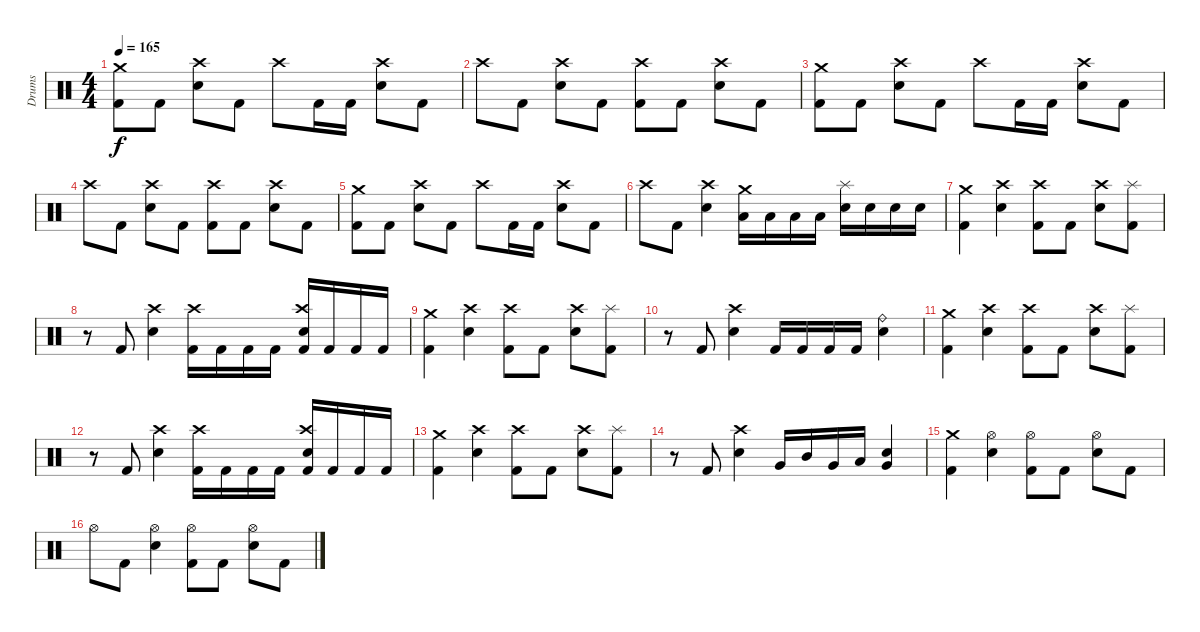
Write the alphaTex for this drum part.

\track ("Drums" "Drums") {instrument percussion}
\staff {score}
\articulation defaults
\ts (4 4)
\tempo 165
\clef neutral
\ks c
("Crash medium (hit)" "Kick (hit) 2").8{dy f} "Kick (hit) 2".8 ("Crash high (hit)" "Electric Snare (hit)").8 "Kick (hit) 2".8 "Crash high (hit)".8 "Kick (hit) 2".16 "Kick (hit) 2".16 ("Crash high (hit)" "Electric Snare (hit)").8 "Kick (hit) 2".8 |
"Crash high (hit)".8 "Kick (hit) 2".8 ("Crash high (hit)" "Electric Snare (hit)").8 "Kick (hit) 2".8 ("Crash high (hit)" "Kick (hit) 2").8 "Kick (hit) 2".8 ("Crash high (hit)" "Electric Snare (hit)").8 "Kick (hit) 2".8 |
("Crash medium (hit)" "Kick (hit) 2").8 "Kick (hit) 2".8 ("Crash high (hit)" "Electric Snare (hit)").8 "Kick (hit) 2".8 "Crash high (hit)".8 "Kick (hit) 2".16 "Kick (hit) 2".16 ("Crash high (hit)" "Electric Snare (hit)").8 "Kick (hit) 2".8 |
"Crash high (hit)".8 "Kick (hit) 2".8 ("Crash high (hit)" "Electric Snare (hit)").8 "Kick (hit) 2".8 ("Crash high (hit)" "Kick (hit) 2").8 "Kick (hit) 2".8 ("Crash high (hit)" "Electric Snare (hit)").8 "Kick (hit) 2".8 |
("Crash medium (hit)" "Kick (hit) 2").8 "Kick (hit) 2".8 ("Crash high (hit)" "Electric Snare (hit)").8 "Kick (hit) 2".8 "Crash high (hit)".8 "Kick (hit) 2".16 "Kick (hit) 2".16 ("Crash high (hit)" "Electric Snare (hit)").8 "Kick (hit) 2".8 |
"Crash high (hit)".8 "Kick (hit) 2".8 ("Crash high (hit)" "Electric Snare (hit)").4 ("Crash medium (hit)" "Low Tom (hit)").16 "Low Tom (hit)".16 "Low Tom (hit)".16 "Low Tom (hit)".16 ("Splash (hit)" "Electric Snare (hit)").16 "Electric Snare (hit)".16 "Electric Snare (hit)".16 "Electric Snare (hit)".16 |
("Crash medium (hit)" "Kick (hit) 2").4 ("Crash high (hit)" "Electric Snare (hit)").4 ("Crash high (hit)" "Kick (hit) 2").8 "Kick (hit) 2".8 ("Crash high (hit)" "Electric Snare (hit)").8 ("Splash (hit)" "Kick (hit) 2").8 |
r.8 "Kick (hit) 2".8 ("Crash high (hit)" "Electric Snare (hit)").4 ("Crash high (hit)" "Kick (hit) 2").16 "Kick (hit) 2".16 "Kick (hit) 2".16 "Kick (hit) 2".16 ("Crash high (hit)" "Electric Snare (hit)" "Kick (hit) 2").16 "Kick (hit) 2".16 "Kick (hit) 2".16 "Kick (hit) 2".16 |
("Crash medium (hit)" "Kick (hit) 2").4 ("Crash high (hit)" "Electric Snare (hit)").4 ("Crash high (hit)" "Kick (hit) 2").8 "Kick (hit) 2".8 ("Crash high (hit)" "Electric Snare (hit)").8 ("Splash (hit)" "Kick (hit) 2").8 |
r.8 "Kick (hit) 2".8 ("Crash high (hit)" "Electric Snare (hit)").4 "Kick (hit) 2".16 "Kick (hit) 2".16 "Kick (hit) 2".16 "Kick (hit) 2".16 ("Ride (bell)" "Electric Snare (hit)").4 |
("Crash medium (hit)" "Kick (hit) 2").4 ("Crash high (hit)" "Electric Snare (hit)").4 ("Crash high (hit)" "Kick (hit) 2").8 "Kick (hit) 2".8 ("Crash high (hit)" "Electric Snare (hit)").8 ("Splash (hit)" "Kick (hit) 2").8 |
r.8 "Kick (hit) 2".8 ("Crash high (hit)" "Electric Snare (hit)").4 ("Crash high (hit)" "Kick (hit) 2").16 "Kick (hit) 2".16 "Kick (hit) 2".16 "Kick (hit) 2".16 ("Crash high (hit)" "Electric Snare (hit)" "Kick (hit) 2").16 "Kick (hit) 2".16 "Kick (hit) 2".16 "Kick (hit) 2".16 |
("Crash medium (hit)" "Kick (hit) 2").4 ("Crash high (hit)" "Electric Snare (hit)").4 ("Crash high (hit)" "Kick (hit) 2").8 "Kick (hit) 2".8 ("Crash high (hit)" "Electric Snare (hit)").8 ("Splash (hit)" "Kick (hit) 2").8 |
r.8 "Kick (hit) 2".8 ("Crash high (hit)" "Electric Snare (hit)").4 "Very Low Tom (hit)".16 "Mid Tom (hit)".16 "Very Low Tom (hit)".16 "Low Floor Tom (hit)".16 ("Very Low Tom (hit)" "Electric Snare (hit)").4 |
("Crash medium (hit)" "Kick (hit) 2").4 ("Hi-Hat (open)" "Electric Snare (hit)").4 ("Hi-Hat (open)" "Kick (hit) 2").8 "Kick (hit) 2".8 ("Hi-Hat (open)" "Electric Snare (hit)").8 "Kick (hit) 2".8 |
"Hi-Hat (open)".8 "Kick (hit) 2".8 ("Hi-Hat (open)" "Electric Snare (hit)").4 ("Hi-Hat (open)" "Kick (hit) 2").8 "Kick (hit) 2".8 ("Hi-Hat (open)" "Electric Snare (hit)").8 "Kick (hit) 2".8
